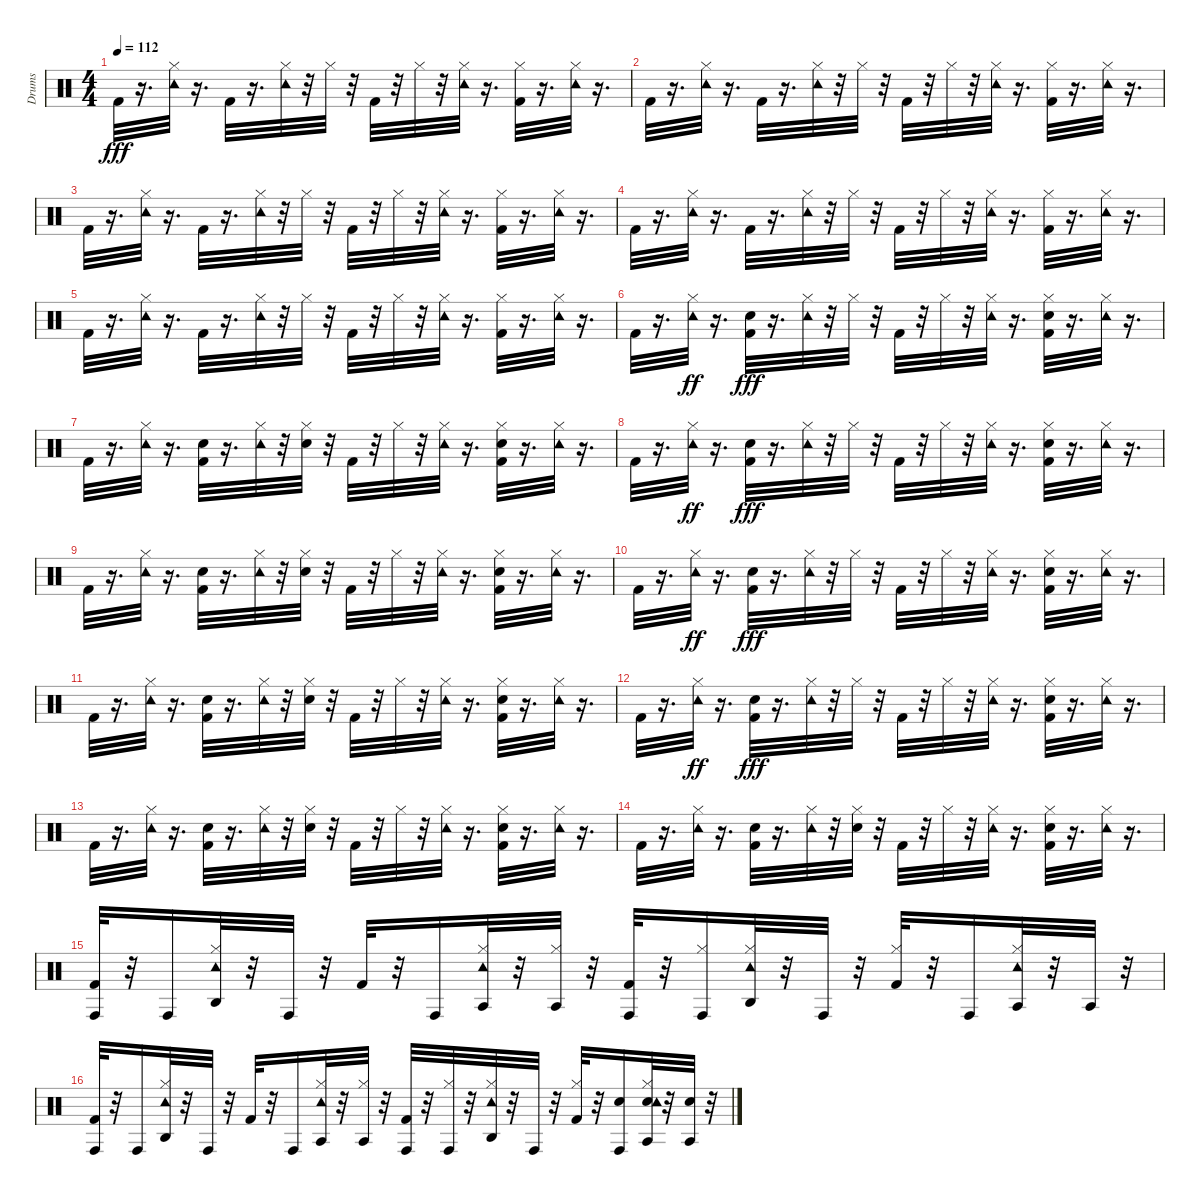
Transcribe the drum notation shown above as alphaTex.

\track ("Drums" "Drums") {instrument percussion}
\staff {score}
\articulation defaults
\ts (4 4)
\tempo 112
\clef neutral
\ks c "Kick (hit) 2".32{dy fff}
r.16{d} ("Tambourine (hit)" "Hi-Hat (closed)").32 r.16{d} "Kick (hit) 2".32 r.16{d} ("Tambourine (hit)" "Hi-Hat (closed)").32 r.32 "Hi-Hat (closed)".32 r.32 "Kick (hit) 2".32 r.32 "Hi-Hat (closed)".32 r.32 ("Tambourine (hit)" "Hi-Hat (closed)").32 r.16{d} ("Hi-Hat (closed)" "Kick (hit) 2").32 r.16{d} ("Tambourine (hit)" "Hi-Hat (closed)").32 r.16{d} |
"Kick (hit) 2".32 r.16{d} ("Tambourine (hit)" "Hi-Hat (closed)").32 r.16{d} "Kick (hit) 2".32 r.16{d} ("Tambourine (hit)" "Hi-Hat (closed)").32 r.32 "Hi-Hat (closed)".32 r.32 "Kick (hit) 2".32 r.32 "Hi-Hat (closed)".32 r.32 ("Tambourine (hit)" "Hi-Hat (closed)").32 r.16{d} ("Hi-Hat (closed)" "Kick (hit) 2").32 r.16{d} ("Tambourine (hit)" "Hi-Hat (closed)").32 r.16{d} |
"Kick (hit) 2".32 r.16{d} ("Tambourine (hit)" "Hi-Hat (closed)").32 r.16{d} "Kick (hit) 2".32 r.16{d} ("Tambourine (hit)" "Hi-Hat (closed)").32 r.32 "Hi-Hat (closed)".32 r.32 "Kick (hit) 2".32 r.32 "Hi-Hat (closed)".32 r.32 ("Tambourine (hit)" "Hi-Hat (closed)").32 r.16{d} ("Hi-Hat (closed)" "Kick (hit) 2").32 r.16{d} ("Tambourine (hit)" "Hi-Hat (closed)").32 r.16{d} |
"Kick (hit) 2".32 r.16{d} ("Tambourine (hit)" "Hi-Hat (closed)").32 r.16{d} "Kick (hit) 2".32 r.16{d} ("Tambourine (hit)" "Hi-Hat (closed)").32 r.32 "Hi-Hat (closed)".32 r.32 "Kick (hit) 2".32 r.32 "Hi-Hat (closed)".32 r.32 ("Tambourine (hit)" "Hi-Hat (closed)").32 r.16{d} ("Hi-Hat (closed)" "Kick (hit) 2").32 r.16{d} ("Tambourine (hit)" "Hi-Hat (closed)").32 r.16{d} |
"Kick (hit) 2".32 r.16{d} ("Tambourine (hit)" "Hi-Hat (closed)").32 r.16{d} "Kick (hit) 2".32 r.16{d} ("Tambourine (hit)" "Hi-Hat (closed)").32 r.32 "Hi-Hat (closed)".32 r.32 "Kick (hit) 2".32 r.32 "Hi-Hat (closed)".32 r.32 ("Tambourine (hit)" "Hi-Hat (closed)").32 r.16{d} ("Hi-Hat (closed)" "Kick (hit) 2").32 r.16{d} ("Tambourine (hit)" "Hi-Hat (closed)").32 r.16{d} |
"Kick (hit) 2".32{volume 16} r.16{d} ("Hi-Hat (closed)" "Tambourine (hit)").32{dy ff} r.16{d} ("Kick (hit) 2" "Snare (hit) 2").32{dy fff} r.16{d} ("Hi-Hat (closed)" "Tambourine (hit)").32 r.32 "Hi-Hat (closed)".32 r.32 "Kick (hit) 2".32 r.32 "Hi-Hat (closed)".32 r.32 ("Hi-Hat (closed)" "Tambourine (hit)").32 r.16{d} ("Kick (hit) 2" "Snare (hit) 2" "Hi-Hat (closed)").32 r.16{d} ("Hi-Hat (closed)" "Tambourine (hit)").32 r.16{d} |
"Kick (hit) 2".32 r.16{d} ("Hi-Hat (closed)" "Tambourine (hit)").32 r.16{d} ("Kick (hit) 2" "Snare (hit) 2").32 r.16{d} ("Hi-Hat (closed)" "Tambourine (hit)").32 r.32 ("Snare (hit) 2" "Hi-Hat (closed)").32 r.32 "Kick (hit) 2".32 r.32 "Hi-Hat (closed)".32 r.32 ("Hi-Hat (closed)" "Tambourine (hit)").32 r.16{d} ("Kick (hit) 2" "Snare (hit) 2" "Hi-Hat (closed)").32 r.16{d} ("Hi-Hat (closed)" "Tambourine (hit)").32 r.16{d} |
"Kick (hit) 2".32 r.16{d} ("Hi-Hat (closed)" "Tambourine (hit)").32{dy ff} r.16{d} ("Kick (hit) 2" "Snare (hit) 2").32{dy fff} r.16{d} ("Hi-Hat (closed)" "Tambourine (hit)").32 r.32 "Hi-Hat (closed)".32 r.32 "Kick (hit) 2".32 r.32 "Hi-Hat (closed)".32 r.32 ("Hi-Hat (closed)" "Tambourine (hit)").32 r.16{d} ("Kick (hit) 2" "Snare (hit) 2" "Hi-Hat (closed)").32 r.16{d} ("Hi-Hat (closed)" "Tambourine (hit)").32 r.16{d} |
"Kick (hit) 2".32 r.16{d} ("Hi-Hat (closed)" "Tambourine (hit)").32 r.16{d} ("Kick (hit) 2" "Snare (hit) 2").32 r.16{d} ("Hi-Hat (closed)" "Tambourine (hit)").32 r.32 ("Snare (hit) 2" "Hi-Hat (closed)").32 r.32 "Kick (hit) 2".32 r.32 "Hi-Hat (closed)".32 r.32 ("Hi-Hat (closed)" "Tambourine (hit)").32 r.16{d} ("Kick (hit) 2" "Snare (hit) 2" "Hi-Hat (closed)").32 r.16{d} ("Hi-Hat (closed)" "Tambourine (hit)").32 r.16{d} |
"Kick (hit) 2".32 r.16{d} ("Hi-Hat (closed)" "Tambourine (hit)").32{dy ff} r.16{d} ("Kick (hit) 2" "Snare (hit) 2").32{dy fff} r.16{d} ("Hi-Hat (closed)" "Tambourine (hit)").32 r.32 "Hi-Hat (closed)".32 r.32 "Kick (hit) 2".32 r.32 "Hi-Hat (closed)".32 r.32 ("Hi-Hat (closed)" "Tambourine (hit)").32 r.16{d} ("Kick (hit) 2" "Snare (hit) 2" "Hi-Hat (closed)").32 r.16{d} ("Hi-Hat (closed)" "Tambourine (hit)").32 r.16{d} |
"Kick (hit) 2".32 r.16{d} ("Hi-Hat (closed)" "Tambourine (hit)").32 r.16{d} ("Kick (hit) 2" "Snare (hit) 2").32 r.16{d} ("Hi-Hat (closed)" "Tambourine (hit)").32 r.32 ("Snare (hit) 2" "Hi-Hat (closed)").32 r.32 "Kick (hit) 2".32 r.32 "Hi-Hat (closed)".32 r.32 ("Hi-Hat (closed)" "Tambourine (hit)").32 r.16{d} ("Kick (hit) 2" "Snare (hit) 2" "Hi-Hat (closed)").32 r.16{d} ("Hi-Hat (closed)" "Tambourine (hit)").32 r.16{d} |
"Kick (hit) 2".32 r.16{d} ("Hi-Hat (closed)" "Tambourine (hit)").32{dy ff} r.16{d} ("Kick (hit) 2" "Snare (hit) 2").32{dy fff} r.16{d} ("Hi-Hat (closed)" "Tambourine (hit)").32 r.32 "Hi-Hat (closed)".32 r.32 "Kick (hit) 2".32 r.32 "Hi-Hat (closed)".32 r.32 ("Hi-Hat (closed)" "Tambourine (hit)").32 r.16{d} ("Kick (hit) 2" "Snare (hit) 2" "Hi-Hat (closed)").32 r.16{d} ("Hi-Hat (closed)" "Tambourine (hit)").32 r.16{d} |
"Kick (hit) 2".32 r.16{d} ("Hi-Hat (closed)" "Tambourine (hit)").32 r.16{d} ("Kick (hit) 2" "Snare (hit) 2").32 r.16{d} ("Hi-Hat (closed)" "Tambourine (hit)").32 r.32 ("Snare (hit) 2" "Hi-Hat (closed)").32 r.32 "Kick (hit) 2".32 r.32 "Hi-Hat (closed)".32 r.32 ("Hi-Hat (closed)" "Tambourine (hit)").32 r.16{d} ("Kick (hit) 2" "Snare (hit) 2" "Hi-Hat (closed)").32 r.16{d} ("Hi-Hat (closed)" "Tambourine (hit)").32 r.16{d} |
"Kick (hit) 2".32 r.16{d} ("Hi-Hat (closed)" "Tambourine (hit)").32 r.16{d} ("Kick (hit) 2" "Snare (hit) 2").32 r.16{d} ("Hi-Hat (closed)" "Tambourine (hit)").32 r.32 ("Snare (hit) 2" "Hi-Hat (closed)").32 r.32 "Kick (hit) 2".32 r.32 "Hi-Hat (closed)".32 r.32 ("Hi-Hat (closed)" "Tambourine (hit)").32 r.16{d} ("Kick (hit) 2" "Snare (hit) 2" "Hi-Hat (closed)").32 r.16{d} ("Hi-Hat (closed)" "Tambourine (hit)").32 r.16{d} |
("Kick (hit) 2" "Conga high (hit)").32 r.32 "Conga high (hit)".16 ("Tambourine (hit)" "Hi-Hat (closed)" "Agogo high (hit)").32 r.32 "Conga high (hit)".32 r.32 "Kick (hit) 2".32 r.32 "Conga high (hit)".16 ("Tambourine (hit)" "Hi-Hat (closed)" "Agogo tow (hit)").32 r.32 ("Hi-Hat (closed)" "Agogo tow (hit)").32 r.32 ("Kick (hit) 2" "Conga high (hit)").32 r.32 ("Hi-Hat (closed)" "Conga high (hit)").16 ("Tambourine (hit)" "Hi-Hat (closed)" "Agogo high (hit)").32 r.32 "Conga high (hit)".32 r.32 ("Hi-Hat (closed)" "Kick (hit) 2").32 r.32 "Conga high (hit)".16 ("Tambourine (hit)" "Hi-Hat (closed)" "Agogo tow (hit)").32 r.32 "Agogo tow (hit)".32 r.32 |
("Kick (hit) 2" "Conga high (hit)").32 r.32 "Conga high (hit)".16 ("Tambourine (hit)" "Hi-Hat (closed)" "Agogo high (hit)").32 r.32 "Conga high (hit)".32 r.32 "Kick (hit) 2".32 r.32 "Conga high (hit)".16 ("Tambourine (hit)" "Hi-Hat (closed)" "Agogo tow (hit)").32 r.32 ("Hi-Hat (closed)" "Agogo tow (hit)").32 r.32 ("Kick (hit) 2" "Conga high (hit)").32 r.32 ("Hi-Hat (closed)" "Conga high (hit)").32 r.32 ("Tambourine (hit)" "Hi-Hat (closed)" "Agogo high (hit)").32 r.32 "Conga high (hit)".32 r.32 ("Hi-Hat (closed)" "Kick (hit) 2").32 r.32 ("Snare (hit) 2" "Conga high (hit)").16 ("Snare (hit) 2" "Tambourine (hit)" "Hi-Hat (closed)" "Agogo tow (hit)").32 r.32 ("Snare (hit) 2" "Agogo tow (hit)").32 r.32
